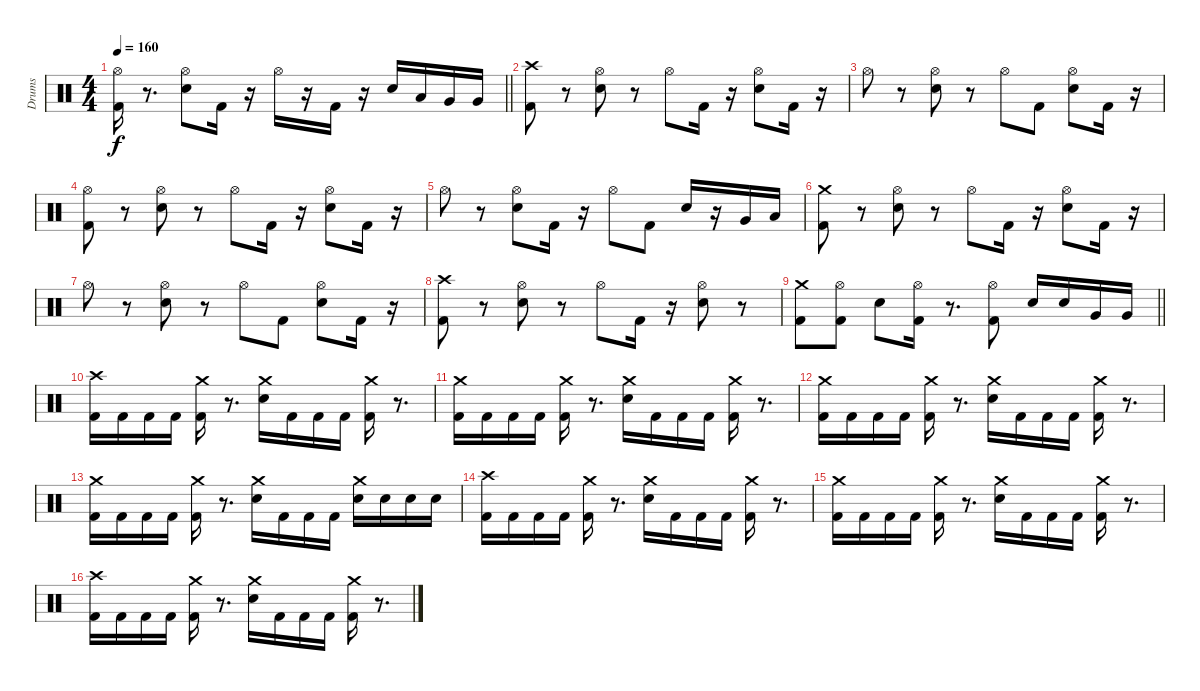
\track ("Drums" "Drums") {instrument percussion}
\staff {score}
\articulation defaults
\ts (4 4)
\tempo 160
\clef neutral
\barLineRight lightlight
\ks c
("Kick (hit) 2" "Hi-Hat (open)").16{dy f} r.8{d} ("Snare (hit) 2" "Hi-Hat (open)").8 "Kick (hit) 2".16 r.16 "Hi-Hat (open)".16 r.16 "Kick (hit) 2".16 r.16 "Snare (hit) 2".16 "Low Tom (hit)".16 "Very Low Tom (hit)".16 "Very Low Tom (hit)".16 |
\section ("" " ")
("Kick (hit) 2" "Crash high (hit)").8 r.8 ("Snare (hit) 2" "Hi-Hat (open)").8 r.8 "Hi-Hat (open)".8 "Kick (hit) 2".16 r.16 ("Snare (hit) 2" "Hi-Hat (open)").8 "Kick (hit) 2".16 r.16 |
"Hi-Hat (open)".8 r.8 ("Snare (hit) 2" "Hi-Hat (open)").8 r.8 "Hi-Hat (open)".8 "Kick (hit) 2".8 ("Snare (hit) 2" "Hi-Hat (open)").8 "Kick (hit) 2".16 r.16 |
("Kick (hit) 2" "Hi-Hat (open)").8 r.8 ("Snare (hit) 2" "Hi-Hat (open)").8 r.8 "Hi-Hat (open)".8 "Kick (hit) 2".16 r.16 ("Snare (hit) 2" "Hi-Hat (open)").8 "Kick (hit) 2".16 r.16 |
"Hi-Hat (open)".8 r.8 ("Snare (hit) 2" "Hi-Hat (open)").8 "Kick (hit) 2".16 r.16 "Hi-Hat (open)".8 "Kick (hit) 2".8 "Snare (hit) 2".16 r.16 "Very Low Tom (hit)".16 "Low Floor Tom (hit)".16 |
("Kick (hit) 2" "Crash medium (hit)").8 r.8 ("Snare (hit) 2" "Hi-Hat (open)").8 r.8 "Hi-Hat (open)".8 "Kick (hit) 2".16 r.16 ("Snare (hit) 2" "Hi-Hat (open)").8 "Kick (hit) 2".16 r.16 |
"Hi-Hat (open)".8 r.8 ("Snare (hit) 2" "Hi-Hat (open)").8 r.8 "Hi-Hat (open)".8 "Kick (hit) 2".8 ("Snare (hit) 2" "Hi-Hat (open)").8 "Kick (hit) 2".16 r.16 |
("Kick (hit) 2" "Crash high (hit)").8 r.8 ("Snare (hit) 2" "Hi-Hat (open)").8 r.8 "Hi-Hat (open)".8 "Kick (hit) 2".16 r.16 ("Snare (hit) 2" "Hi-Hat (open)").8 r.8 |
\barLineRight lightlight
("Kick (hit) 2" "Crash medium (hit)").8 ("Kick (hit) 2" "Hi-Hat (open)").8 "Snare (hit) 2".8 ("Kick (hit) 2" "Hi-Hat (open)").16 r.8{d} ("Kick (hit) 2" "Hi-Hat (open)").8 "Snare (hit) 2".16 "Snare (hit) 2".16 "Very Low Tom (hit)".16 "Very Low Tom (hit)".16 |
\section ("" " ")
("Kick (hit) 2" "Crash high (hit)").16 "Kick (hit) 2".16 "Kick (hit) 2".16 "Kick (hit) 2".16 ("Kick (hit) 2" "Crash medium (hit)").16 r.8{d} ("Snare (hit) 2" "Crash medium (hit)").16 "Kick (hit) 2".16 "Kick (hit) 2".16 "Kick (hit) 2".16 ("Kick (hit) 2" "Crash medium (hit)").16 r.8{d} |
("Kick (hit) 2" "Crash medium (hit)").16 "Kick (hit) 2".16 "Kick (hit) 2".16 "Kick (hit) 2".16 ("Kick (hit) 2" "Crash medium (hit)").16 r.8{d} ("Snare (hit) 2" "Crash medium (hit)").16 "Kick (hit) 2".16 "Kick (hit) 2".16 "Kick (hit) 2".16 ("Kick (hit) 2" "Crash medium (hit)").16 r.8{d} |
("Kick (hit) 2" "Crash medium (hit)").16 "Kick (hit) 2".16 "Kick (hit) 2".16 "Kick (hit) 2".16 ("Kick (hit) 2" "Crash medium (hit)").16 r.8{d} ("Snare (hit) 2" "Crash medium (hit)").16 "Kick (hit) 2".16 "Kick (hit) 2".16 "Kick (hit) 2".16 ("Kick (hit) 2" "Crash medium (hit)").16 r.8{d} |
("Kick (hit) 2" "Crash medium (hit)").16 "Kick (hit) 2".16 "Kick (hit) 2".16 "Kick (hit) 2".16 ("Kick (hit) 2" "Crash medium (hit)").16 r.8{d} ("Snare (hit) 2" "Crash medium (hit)").16 "Kick (hit) 2".16 "Kick (hit) 2".16 "Kick (hit) 2".16 ("Snare (hit) 2" "Crash medium (hit)").16 "Snare (hit) 2".16 "Snare (hit) 2".16 "Snare (hit) 2".16 |
("Kick (hit) 2" "Crash high (hit)").16 "Kick (hit) 2".16 "Kick (hit) 2".16 "Kick (hit) 2".16 ("Kick (hit) 2" "Crash medium (hit)").16 r.8{d} ("Snare (hit) 2" "Crash medium (hit)").16 "Kick (hit) 2".16 "Kick (hit) 2".16 "Kick (hit) 2".16 ("Kick (hit) 2" "Crash medium (hit)").16 r.8{d} |
("Kick (hit) 2" "Crash medium (hit)").16 "Kick (hit) 2".16 "Kick (hit) 2".16 "Kick (hit) 2".16 ("Kick (hit) 2" "Crash medium (hit)").16 r.8{d} ("Snare (hit) 2" "Crash medium (hit)").16 "Kick (hit) 2".16 "Kick (hit) 2".16 "Kick (hit) 2".16 ("Kick (hit) 2" "Crash medium (hit)").16 r.8{d} |
("Kick (hit) 2" "Crash high (hit)").16 "Kick (hit) 2".16 "Kick (hit) 2".16 "Kick (hit) 2".16 ("Kick (hit) 2" "Crash medium (hit)").16 r.8{d} ("Snare (hit) 2" "Crash medium (hit)").16 "Kick (hit) 2".16 "Kick (hit) 2".16 "Kick (hit) 2".16 ("Kick (hit) 2" "Crash medium (hit)").16 r.8{d}
